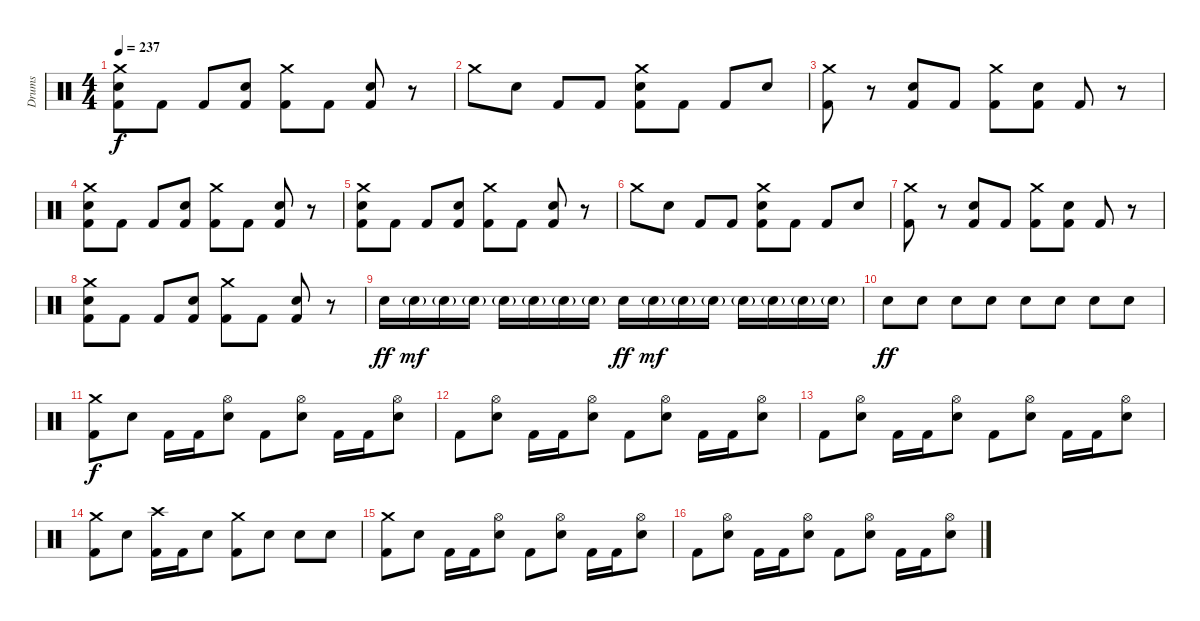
\track ("Drums" "Drums") {instrument percussion}
\staff {score}
\articulation defaults
\ts (4 4)
\tempo 237
\clef neutral
\ks c
("Crash medium (hit)" "Electric Snare (hit)" "Kick (hit) 2").8{dy f} "Kick (hit) 2".8 "Kick (hit) 2".8 ("Electric Snare (hit)" "Kick (hit) 2").8 ("Crash medium (hit)" "Kick (hit) 2").8 "Kick (hit) 2".8 ("Electric Snare (hit)" "Kick (hit) 2").8 r.8 |
"Crash medium (hit)".8 "Electric Snare (hit)".8 "Kick (hit) 2".8 "Kick (hit) 2".8 ("Crash medium (hit)" "Electric Snare (hit)" "Kick (hit) 2").8 "Kick (hit) 2".8 "Kick (hit) 2".8 "Electric Snare (hit)".8 |
("Crash medium (hit)" "Kick (hit) 2").8 r.8 ("Electric Snare (hit)" "Kick (hit) 2").8 "Kick (hit) 2".8 ("Crash medium (hit)" "Kick (hit) 2").8 ("Electric Snare (hit)" "Kick (hit) 2").8 "Kick (hit) 2".8 r.8 |
("Crash medium (hit)" "Electric Snare (hit)" "Kick (hit) 2").8 "Kick (hit) 2".8 "Kick (hit) 2".8 ("Electric Snare (hit)" "Kick (hit) 2").8 ("Crash medium (hit)" "Kick (hit) 2").8 "Kick (hit) 2".8 ("Electric Snare (hit)" "Kick (hit) 2").8 r.8 |
("Crash medium (hit)" "Electric Snare (hit)" "Kick (hit) 2").8 "Kick (hit) 2".8 "Kick (hit) 2".8 ("Electric Snare (hit)" "Kick (hit) 2").8 ("Crash medium (hit)" "Kick (hit) 2").8 "Kick (hit) 2".8 ("Electric Snare (hit)" "Kick (hit) 2").8 r.8 |
"Crash medium (hit)".8 "Electric Snare (hit)".8 "Kick (hit) 2".8 "Kick (hit) 2".8 ("Crash medium (hit)" "Electric Snare (hit)" "Kick (hit) 2").8 "Kick (hit) 2".8 "Kick (hit) 2".8 "Electric Snare (hit)".8 |
("Crash medium (hit)" "Kick (hit) 2").8 r.8 ("Electric Snare (hit)" "Kick (hit) 2").8 "Kick (hit) 2".8 ("Crash medium (hit)" "Kick (hit) 2").8 ("Electric Snare (hit)" "Kick (hit) 2").8 "Kick (hit) 2".8 r.8 |
("Crash medium (hit)" "Electric Snare (hit)" "Kick (hit) 2").8 "Kick (hit) 2".8 "Kick (hit) 2".8 ("Electric Snare (hit)" "Kick (hit) 2").8 ("Crash medium (hit)" "Kick (hit) 2").8 "Kick (hit) 2".8 ("Electric Snare (hit)" "Kick (hit) 2").8 r.8 |
"Electric Snare (hit)".16{dy ff} "Electric Snare (hit)"{g}.16{dy mf} "Electric Snare (hit)"{g}.16 "Electric Snare (hit)"{g}.16 "Electric Snare (hit)"{g}.16 "Electric Snare (hit)"{g}.16 "Electric Snare (hit)"{g}.16 "Electric Snare (hit)"{g}.16 "Electric Snare (hit)".16{dy ff} "Electric Snare (hit)"{g}.16{dy mf} "Electric Snare (hit)"{g}.16 "Electric Snare (hit)"{g}.16 "Electric Snare (hit)"{g}.16 "Electric Snare (hit)"{g}.16 "Electric Snare (hit)"{g}.16 "Electric Snare (hit)"{g}.16 |
"Electric Snare (hit)".8{dy ff} "Electric Snare (hit)".8 "Electric Snare (hit)".8 "Electric Snare (hit)".8 "Electric Snare (hit)".8 "Electric Snare (hit)".8 "Electric Snare (hit)".8 "Electric Snare (hit)".8 |
("Crash medium (hit)" "Kick (hit) 2").8{dy f} "Electric Snare (hit)".8 "Kick (hit) 2".16 "Kick (hit) 2".16 ("Hi-Hat (open)" "Electric Snare (hit)").8 "Kick (hit) 2".8 ("Hi-Hat (open)" "Electric Snare (hit)").8 "Kick (hit) 2".16 "Kick (hit) 2".16 ("Hi-Hat (open)" "Electric Snare (hit)").8 |
"Kick (hit) 2".8 ("Hi-Hat (open)" "Electric Snare (hit)").8 "Kick (hit) 2".16 "Kick (hit) 2".16 ("Hi-Hat (open)" "Electric Snare (hit)").8 "Kick (hit) 2".8 ("Hi-Hat (open)" "Electric Snare (hit)").8 "Kick (hit) 2".16 "Kick (hit) 2".16 ("Hi-Hat (open)" "Electric Snare (hit)").8 |
"Kick (hit) 2".8 ("Hi-Hat (open)" "Electric Snare (hit)").8 "Kick (hit) 2".16 "Kick (hit) 2".16 ("Hi-Hat (open)" "Electric Snare (hit)").8 "Kick (hit) 2".8 ("Hi-Hat (open)" "Electric Snare (hit)").8 "Kick (hit) 2".16 "Kick (hit) 2".16 ("Hi-Hat (open)" "Electric Snare (hit)").8 |
("Crash medium (hit)" "Kick (hit) 2").8 "Electric Snare (hit)".8 ("Crash high (hit)" "Kick (hit) 2").16 "Kick (hit) 2".16 "Electric Snare (hit)".8 ("Crash medium (hit)" "Kick (hit) 2").8 "Electric Snare (hit)".8 "Electric Snare (hit)".8 "Electric Snare (hit)".8 |
("Crash medium (hit)" "Kick (hit) 2").8 "Electric Snare (hit)".8 "Kick (hit) 2".16 "Kick (hit) 2".16 ("Hi-Hat (open)" "Electric Snare (hit)").8 "Kick (hit) 2".8 ("Hi-Hat (open)" "Electric Snare (hit)").8 "Kick (hit) 2".16 "Kick (hit) 2".16 ("Hi-Hat (open)" "Electric Snare (hit)").8 |
"Kick (hit) 2".8 ("Hi-Hat (open)" "Electric Snare (hit)").8 "Kick (hit) 2".16 "Kick (hit) 2".16 ("Hi-Hat (open)" "Electric Snare (hit)").8 "Kick (hit) 2".8 ("Hi-Hat (open)" "Electric Snare (hit)").8 "Kick (hit) 2".16 "Kick (hit) 2".16 ("Hi-Hat (open)" "Electric Snare (hit)").8
